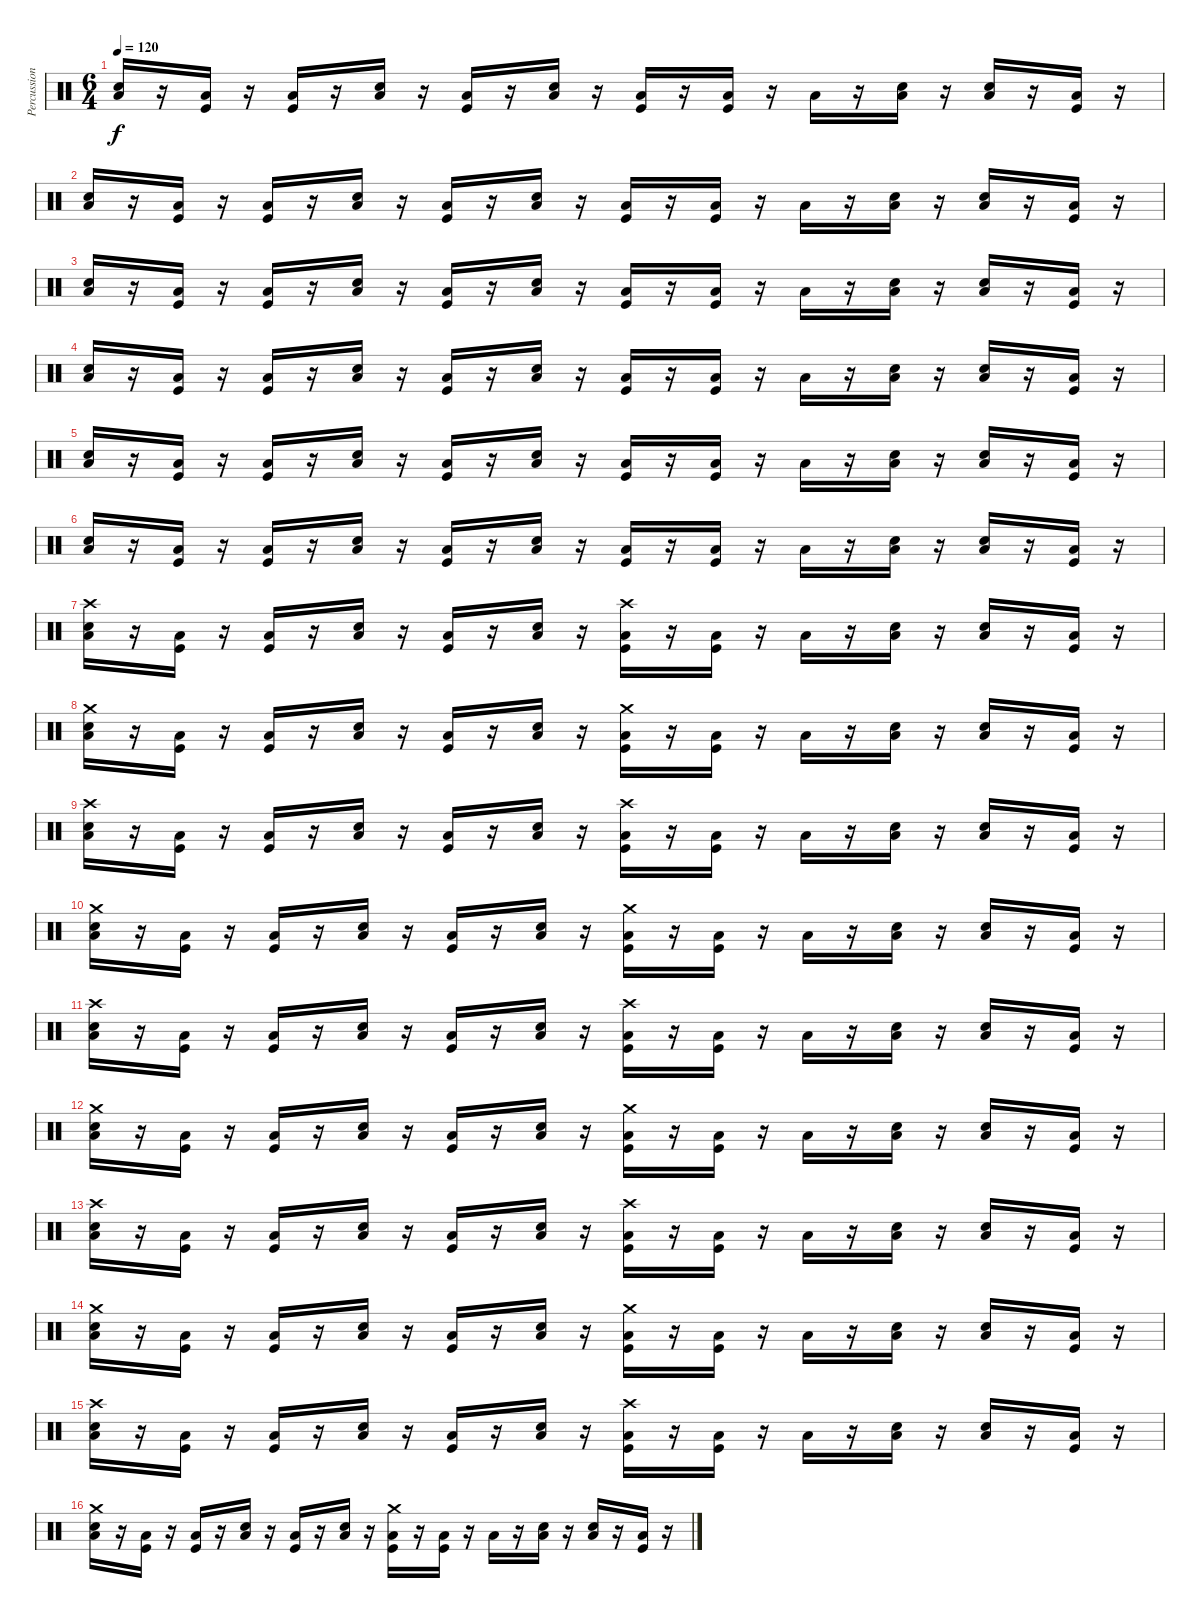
\track ("Percussion" "Percussion") {instrument percussion}
\staff {score}
\articulation defaults
\ts (6 4)
\tempo 120
\clef neutral
\ks c
("Low Floor Tom (hit)" "Snare (hit) 2").16{dy f} r.16 ("Low Floor Tom (hit)" "Kick (hit)").16 r.16 ("Low Floor Tom (hit)" "Kick (hit)").16 r.16 ("Low Floor Tom (hit)" "Snare (hit) 2").16 r.16 ("Low Floor Tom (hit)" "Kick (hit)").16 r.16 ("Low Floor Tom (hit)" "Snare (hit) 2").16 r.16 ("Low Floor Tom (hit)" "Kick (hit)").16 r.16 ("Low Floor Tom (hit)" "Kick (hit)").16 r.16 "Low Floor Tom (hit)".16 r.16 ("Low Floor Tom (hit)" "Snare (hit) 2").16 r.16 ("Low Floor Tom (hit)" "Snare (hit) 2").16 r.16 ("Low Floor Tom (hit)" "Kick (hit)").16 r.16 |
("Low Floor Tom (hit)" "Snare (hit) 2").16 r.16 ("Low Floor Tom (hit)" "Kick (hit)").16 r.16 ("Low Floor Tom (hit)" "Kick (hit)").16 r.16 ("Low Floor Tom (hit)" "Snare (hit) 2").16 r.16 ("Low Floor Tom (hit)" "Kick (hit)").16 r.16 ("Low Floor Tom (hit)" "Snare (hit) 2").16 r.16 ("Low Floor Tom (hit)" "Kick (hit)").16 r.16 ("Low Floor Tom (hit)" "Kick (hit)").16 r.16 "Low Floor Tom (hit)".16 r.16 ("Low Floor Tom (hit)" "Snare (hit) 2").16 r.16 ("Low Floor Tom (hit)" "Snare (hit) 2").16 r.16 ("Low Floor Tom (hit)" "Kick (hit)").16 r.16 |
("Low Floor Tom (hit)" "Snare (hit) 2").16 r.16 ("Low Floor Tom (hit)" "Kick (hit)").16 r.16 ("Low Floor Tom (hit)" "Kick (hit)").16 r.16 ("Low Floor Tom (hit)" "Snare (hit) 2").16 r.16 ("Low Floor Tom (hit)" "Kick (hit)").16 r.16 ("Low Floor Tom (hit)" "Snare (hit) 2").16 r.16 ("Low Floor Tom (hit)" "Kick (hit)").16 r.16 ("Low Floor Tom (hit)" "Kick (hit)").16 r.16 "Low Floor Tom (hit)".16 r.16 ("Low Floor Tom (hit)" "Snare (hit) 2").16 r.16 ("Low Floor Tom (hit)" "Snare (hit) 2").16 r.16 ("Low Floor Tom (hit)" "Kick (hit)").16 r.16 |
("Low Floor Tom (hit)" "Snare (hit) 2").16 r.16 ("Low Floor Tom (hit)" "Kick (hit)").16 r.16 ("Low Floor Tom (hit)" "Kick (hit)").16 r.16 ("Low Floor Tom (hit)" "Snare (hit) 2").16 r.16 ("Low Floor Tom (hit)" "Kick (hit)").16 r.16 ("Low Floor Tom (hit)" "Snare (hit) 2").16 r.16 ("Low Floor Tom (hit)" "Kick (hit)").16 r.16 ("Low Floor Tom (hit)" "Kick (hit)").16 r.16 "Low Floor Tom (hit)".16 r.16 ("Low Floor Tom (hit)" "Snare (hit) 2").16 r.16 ("Low Floor Tom (hit)" "Snare (hit) 2").16 r.16 ("Low Floor Tom (hit)" "Kick (hit)").16 r.16 |
("Low Floor Tom (hit)" "Snare (hit) 2").16 r.16 ("Low Floor Tom (hit)" "Kick (hit)").16 r.16 ("Low Floor Tom (hit)" "Kick (hit)").16 r.16 ("Low Floor Tom (hit)" "Snare (hit) 2").16 r.16 ("Low Floor Tom (hit)" "Kick (hit)").16 r.16 ("Low Floor Tom (hit)" "Snare (hit) 2").16 r.16 ("Low Floor Tom (hit)" "Kick (hit)").16 r.16 ("Low Floor Tom (hit)" "Kick (hit)").16 r.16 "Low Floor Tom (hit)".16 r.16 ("Low Floor Tom (hit)" "Snare (hit) 2").16 r.16 ("Low Floor Tom (hit)" "Snare (hit) 2").16 r.16 ("Low Floor Tom (hit)" "Kick (hit)").16 r.16 |
("Low Floor Tom (hit)" "Snare (hit) 2").16 r.16 ("Low Floor Tom (hit)" "Kick (hit)").16 r.16 ("Low Floor Tom (hit)" "Kick (hit)").16 r.16 ("Low Floor Tom (hit)" "Snare (hit) 2").16 r.16 ("Low Floor Tom (hit)" "Kick (hit)").16 r.16 ("Low Floor Tom (hit)" "Snare (hit) 2").16 r.16 ("Low Floor Tom (hit)" "Kick (hit)").16 r.16 ("Low Floor Tom (hit)" "Kick (hit)").16 r.16 "Low Floor Tom (hit)".16 r.16 ("Low Floor Tom (hit)" "Snare (hit) 2").16 r.16 ("Low Floor Tom (hit)" "Snare (hit) 2").16 r.16 ("Low Floor Tom (hit)" "Kick (hit)").16 r.16 |
("Crash high (hit)" "Low Floor Tom (hit)" "Snare (hit) 2").16 r.16 ("Low Floor Tom (hit)" "Kick (hit)").16 r.16 ("Low Floor Tom (hit)" "Kick (hit)").16 r.16 ("Low Floor Tom (hit)" "Snare (hit) 2").16 r.16 ("Low Floor Tom (hit)" "Kick (hit)").16 r.16 ("Low Floor Tom (hit)" "Snare (hit) 2").16 r.16 ("Crash high (hit)" "Low Floor Tom (hit)" "Kick (hit)").16 r.16 ("Low Floor Tom (hit)" "Kick (hit)").16 r.16 "Low Floor Tom (hit)".16 r.16 ("Low Floor Tom (hit)" "Snare (hit) 2").16 r.16 ("Low Floor Tom (hit)" "Snare (hit) 2").16 r.16 ("Low Floor Tom (hit)" "Kick (hit)").16 r.16 |
("Crash medium (hit)" "Low Floor Tom (hit)" "Snare (hit) 2").16 r.16 ("Low Floor Tom (hit)" "Kick (hit)").16 r.16 ("Low Floor Tom (hit)" "Kick (hit)").16 r.16 ("Low Floor Tom (hit)" "Snare (hit) 2").16 r.16 ("Low Floor Tom (hit)" "Kick (hit)").16 r.16 ("Low Floor Tom (hit)" "Snare (hit) 2").16 r.16 ("Crash medium (hit)" "Low Floor Tom (hit)" "Kick (hit)").16 r.16 ("Low Floor Tom (hit)" "Kick (hit)").16 r.16 "Low Floor Tom (hit)".16 r.16 ("Low Floor Tom (hit)" "Snare (hit) 2").16 r.16 ("Low Floor Tom (hit)" "Snare (hit) 2").16 r.16 ("Low Floor Tom (hit)" "Kick (hit)").16 r.16 |
("Crash high (hit)" "Low Floor Tom (hit)" "Snare (hit) 2").16 r.16 ("Low Floor Tom (hit)" "Kick (hit)").16 r.16 ("Low Floor Tom (hit)" "Kick (hit)").16 r.16 ("Low Floor Tom (hit)" "Snare (hit) 2").16 r.16 ("Low Floor Tom (hit)" "Kick (hit)").16 r.16 ("Low Floor Tom (hit)" "Snare (hit) 2").16 r.16 ("Crash high (hit)" "Low Floor Tom (hit)" "Kick (hit)").16 r.16 ("Low Floor Tom (hit)" "Kick (hit)").16 r.16 "Low Floor Tom (hit)".16 r.16 ("Low Floor Tom (hit)" "Snare (hit) 2").16 r.16 ("Low Floor Tom (hit)" "Snare (hit) 2").16 r.16 ("Low Floor Tom (hit)" "Kick (hit)").16 r.16 |
("Crash medium (hit)" "Low Floor Tom (hit)" "Snare (hit) 2").16 r.16 ("Low Floor Tom (hit)" "Kick (hit)").16 r.16 ("Low Floor Tom (hit)" "Kick (hit)").16 r.16 ("Low Floor Tom (hit)" "Snare (hit) 2").16 r.16 ("Low Floor Tom (hit)" "Kick (hit)").16 r.16 ("Low Floor Tom (hit)" "Snare (hit) 2").16 r.16 ("Crash medium (hit)" "Low Floor Tom (hit)" "Kick (hit)").16 r.16 ("Low Floor Tom (hit)" "Kick (hit)").16 r.16 "Low Floor Tom (hit)".16 r.16 ("Low Floor Tom (hit)" "Snare (hit) 2").16 r.16 ("Low Floor Tom (hit)" "Snare (hit) 2").16 r.16 ("Low Floor Tom (hit)" "Kick (hit)").16 r.16 |
("Crash high (hit)" "Low Floor Tom (hit)" "Snare (hit) 2").16 r.16 ("Low Floor Tom (hit)" "Kick (hit)").16 r.16 ("Low Floor Tom (hit)" "Kick (hit)").16 r.16 ("Low Floor Tom (hit)" "Snare (hit) 2").16 r.16 ("Low Floor Tom (hit)" "Kick (hit)").16 r.16 ("Low Floor Tom (hit)" "Snare (hit) 2").16 r.16 ("Crash high (hit)" "Low Floor Tom (hit)" "Kick (hit)").16 r.16 ("Low Floor Tom (hit)" "Kick (hit)").16 r.16 "Low Floor Tom (hit)".16 r.16 ("Low Floor Tom (hit)" "Snare (hit) 2").16 r.16 ("Low Floor Tom (hit)" "Snare (hit) 2").16 r.16 ("Low Floor Tom (hit)" "Kick (hit)").16 r.16 |
("Crash medium (hit)" "Low Floor Tom (hit)" "Snare (hit) 2").16 r.16 ("Low Floor Tom (hit)" "Kick (hit)").16 r.16 ("Low Floor Tom (hit)" "Kick (hit)").16 r.16 ("Low Floor Tom (hit)" "Snare (hit) 2").16 r.16 ("Low Floor Tom (hit)" "Kick (hit)").16 r.16 ("Low Floor Tom (hit)" "Snare (hit) 2").16 r.16 ("Crash medium (hit)" "Low Floor Tom (hit)" "Kick (hit)").16 r.16 ("Low Floor Tom (hit)" "Kick (hit)").16 r.16 "Low Floor Tom (hit)".16 r.16 ("Low Floor Tom (hit)" "Snare (hit) 2").16 r.16 ("Low Floor Tom (hit)" "Snare (hit) 2").16 r.16 ("Low Floor Tom (hit)" "Kick (hit)").16 r.16 |
("Crash high (hit)" "Low Floor Tom (hit)" "Snare (hit) 2").16 r.16 ("Low Floor Tom (hit)" "Kick (hit)").16 r.16 ("Low Floor Tom (hit)" "Kick (hit)").16 r.16 ("Low Floor Tom (hit)" "Snare (hit) 2").16 r.16 ("Low Floor Tom (hit)" "Kick (hit)").16 r.16 ("Low Floor Tom (hit)" "Snare (hit) 2").16 r.16 ("Crash high (hit)" "Low Floor Tom (hit)" "Kick (hit)").16 r.16 ("Low Floor Tom (hit)" "Kick (hit)").16 r.16 "Low Floor Tom (hit)".16 r.16 ("Low Floor Tom (hit)" "Snare (hit) 2").16 r.16 ("Low Floor Tom (hit)" "Snare (hit) 2").16 r.16 ("Low Floor Tom (hit)" "Kick (hit)").16 r.16 |
("Crash medium (hit)" "Low Floor Tom (hit)" "Snare (hit) 2").16 r.16 ("Low Floor Tom (hit)" "Kick (hit)").16 r.16 ("Low Floor Tom (hit)" "Kick (hit)").16 r.16 ("Low Floor Tom (hit)" "Snare (hit) 2").16 r.16 ("Low Floor Tom (hit)" "Kick (hit)").16 r.16 ("Low Floor Tom (hit)" "Snare (hit) 2").16 r.16 ("Crash medium (hit)" "Low Floor Tom (hit)" "Kick (hit)").16 r.16 ("Low Floor Tom (hit)" "Kick (hit)").16 r.16 "Low Floor Tom (hit)".16 r.16 ("Low Floor Tom (hit)" "Snare (hit) 2").16 r.16 ("Low Floor Tom (hit)" "Snare (hit) 2").16 r.16 ("Low Floor Tom (hit)" "Kick (hit)").16 r.16 |
("Crash high (hit)" "Low Floor Tom (hit)" "Snare (hit) 2").16 r.16 ("Low Floor Tom (hit)" "Kick (hit)").16 r.16 ("Low Floor Tom (hit)" "Kick (hit)").16 r.16 ("Low Floor Tom (hit)" "Snare (hit) 2").16 r.16 ("Low Floor Tom (hit)" "Kick (hit)").16 r.16 ("Low Floor Tom (hit)" "Snare (hit) 2").16 r.16 ("Crash high (hit)" "Low Floor Tom (hit)" "Kick (hit)").16 r.16 ("Low Floor Tom (hit)" "Kick (hit)").16 r.16 "Low Floor Tom (hit)".16 r.16 ("Low Floor Tom (hit)" "Snare (hit) 2").16 r.16 ("Low Floor Tom (hit)" "Snare (hit) 2").16 r.16 ("Low Floor Tom (hit)" "Kick (hit)").16 r.16 |
("Crash medium (hit)" "Low Floor Tom (hit)" "Snare (hit) 2").16 r.16 ("Low Floor Tom (hit)" "Kick (hit)").16 r.16 ("Low Floor Tom (hit)" "Kick (hit)").16 r.16 ("Low Floor Tom (hit)" "Snare (hit) 2").16 r.16 ("Low Floor Tom (hit)" "Kick (hit)").16 r.16 ("Low Floor Tom (hit)" "Snare (hit) 2").16 r.16 ("Crash medium (hit)" "Low Floor Tom (hit)" "Kick (hit)").16 r.16 ("Low Floor Tom (hit)" "Kick (hit)").16 r.16 "Low Floor Tom (hit)".16 r.16 ("Low Floor Tom (hit)" "Snare (hit) 2").16 r.16 ("Low Floor Tom (hit)" "Snare (hit) 2").16 r.16 ("Low Floor Tom (hit)" "Kick (hit)").16 r.16
